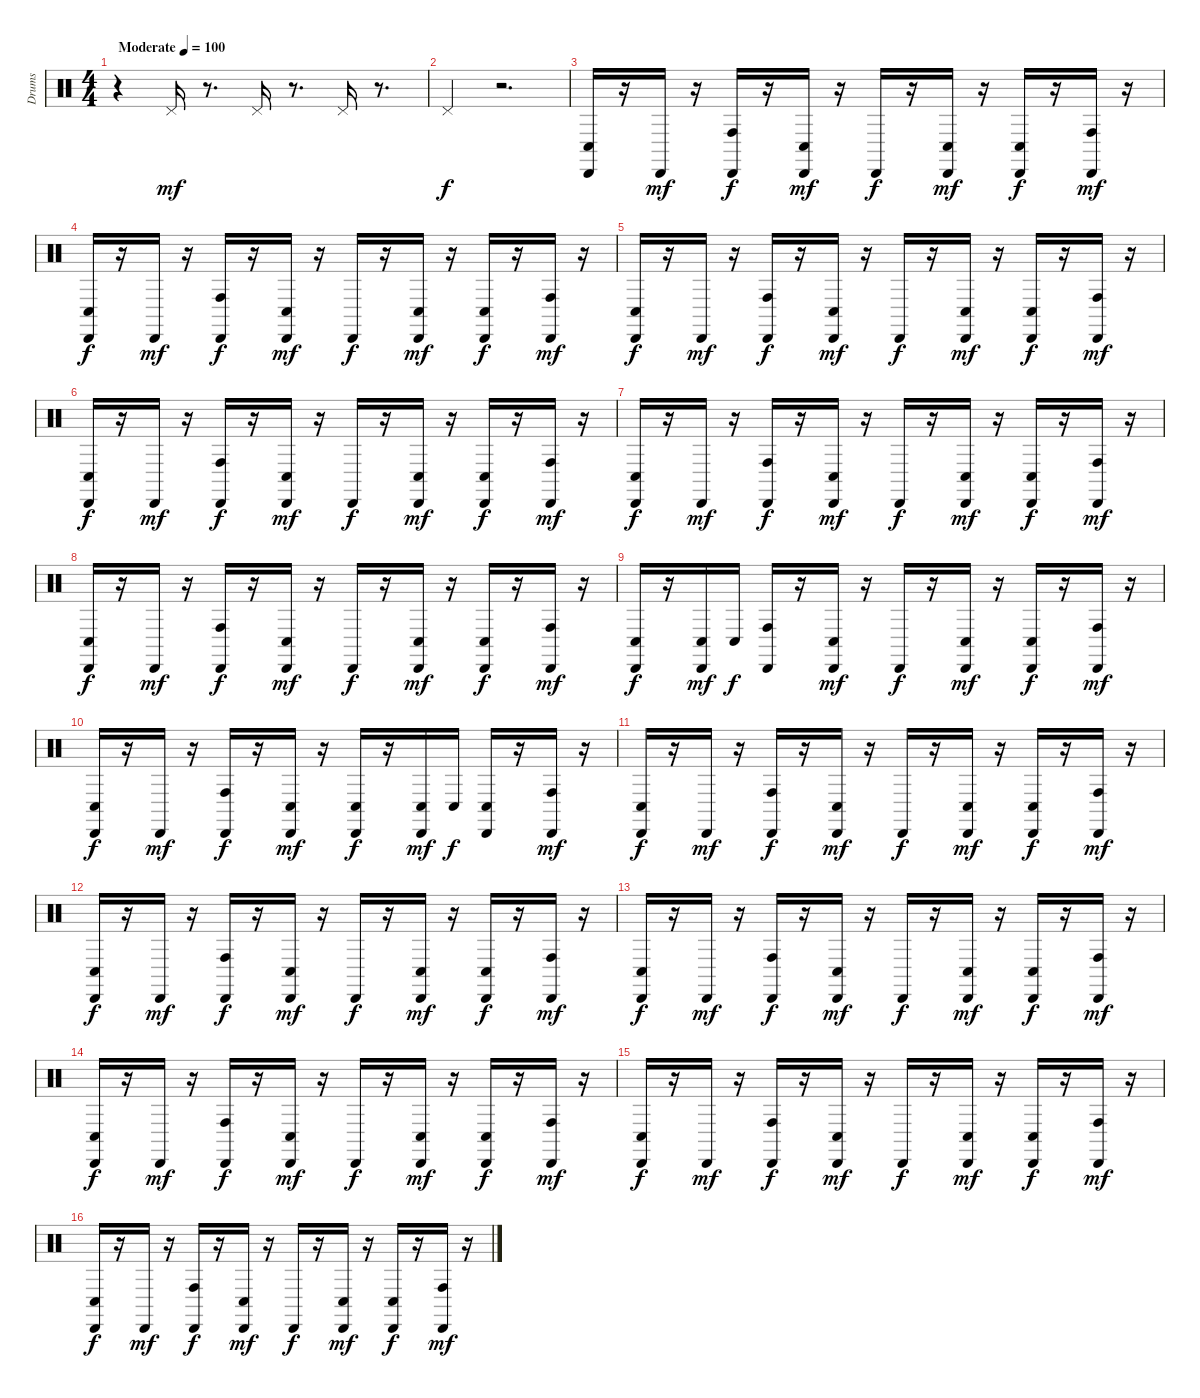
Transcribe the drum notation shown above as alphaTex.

\track ("Drums" "Drums") {instrument percussion}
\staff {score}
\articulation defaults
\ts (4 4)
\tempo (100 "Moderate")
\clef neutral
\ks c
r.4{dy mf} "Pedal Hi-Hat (hit)".16{volume 9} r.8{d} "Pedal Hi-Hat (hit)".16 r.8{d} "Pedal Hi-Hat (hit)".16 r.8{d} |
"Pedal Hi-Hat (hit)".4{dy f} r.2{d} |
("Conga low (hit)" "Cabasa (hit)").16{volume 15} r.16 "Cabasa (hit)".16{dy mf} r.16 ("Conga high (hit)" "Cabasa (hit)").16{dy f} r.16 ("Conga low (hit)" "Cabasa (hit)").16{dy mf} r.16 "Cabasa (hit)".16{dy f} r.16 ("Conga low (hit)" "Cabasa (hit)").16{dy mf} r.16 ("Conga low (hit)" "Cabasa (hit)").16{dy f} r.16 ("Conga high (hit)" "Cabasa (hit)").16{dy mf} r.16 |
("Conga low (hit)" "Cabasa (hit)").16{dy f} r.16 "Cabasa (hit)".16{dy mf} r.16 ("Conga high (hit)" "Cabasa (hit)").16{dy f} r.16 ("Conga low (hit)" "Cabasa (hit)").16{dy mf} r.16 "Cabasa (hit)".16{dy f} r.16 ("Conga low (hit)" "Cabasa (hit)").16{dy mf} r.16 ("Conga low (hit)" "Cabasa (hit)").16{dy f} r.16 ("Conga high (hit)" "Cabasa (hit)").16{dy mf} r.16 |
("Conga low (hit)" "Cabasa (hit)").16{dy f} r.16 "Cabasa (hit)".16{dy mf} r.16 ("Conga high (hit)" "Cabasa (hit)").16{dy f} r.16 ("Conga low (hit)" "Cabasa (hit)").16{dy mf} r.16 "Cabasa (hit)".16{dy f} r.16 ("Conga low (hit)" "Cabasa (hit)").16{dy mf} r.16 ("Conga low (hit)" "Cabasa (hit)").16{dy f} r.16 ("Conga high (hit)" "Cabasa (hit)").16{dy mf} r.16 |
("Conga low (hit)" "Cabasa (hit)").16{dy f} r.16 "Cabasa (hit)".16{dy mf} r.16 ("Conga high (hit)" "Cabasa (hit)").16{dy f} r.16 ("Conga low (hit)" "Cabasa (hit)").16{dy mf} r.16 "Cabasa (hit)".16{dy f} r.16 ("Conga low (hit)" "Cabasa (hit)").16{dy mf} r.16 ("Conga low (hit)" "Cabasa (hit)").16{dy f} r.16 ("Conga high (hit)" "Cabasa (hit)").16{dy mf} r.16 |
("Conga low (hit)" "Cabasa (hit)").16{dy f} r.16 "Cabasa (hit)".16{dy mf} r.16 ("Conga high (hit)" "Cabasa (hit)").16{dy f} r.16 ("Conga low (hit)" "Cabasa (hit)").16{dy mf} r.16 "Cabasa (hit)".16{dy f} r.16 ("Conga low (hit)" "Cabasa (hit)").16{dy mf} r.16 ("Conga low (hit)" "Cabasa (hit)").16{dy f} r.16 ("Conga high (hit)" "Cabasa (hit)").16{dy mf} r.16 |
("Conga low (hit)" "Cabasa (hit)").16{dy f} r.16 "Cabasa (hit)".16{dy mf} r.16 ("Conga high (hit)" "Cabasa (hit)").16{dy f} r.16 ("Conga low (hit)" "Cabasa (hit)").16{dy mf} r.16 "Cabasa (hit)".16{dy f} r.16 ("Conga low (hit)" "Cabasa (hit)").16{dy mf} r.16 ("Conga low (hit)" "Cabasa (hit)").16{dy f} r.16 ("Conga high (hit)" "Cabasa (hit)").16{dy mf} r.16 |
("Conga low (hit)" "Cabasa (hit)").16{dy f} r.16 ("Conga low (hit)" "Cabasa (hit)").16{dy mf} "Conga low (hit)".16{dy f} ("Conga high (hit)" "Cabasa (hit)").16 r.16 ("Conga low (hit)" "Cabasa (hit)").16{dy mf} r.16 "Cabasa (hit)".16{dy f} r.16 ("Conga low (hit)" "Cabasa (hit)").16{dy mf} r.16 ("Conga low (hit)" "Cabasa (hit)").16{dy f} r.16 ("Conga high (hit)" "Cabasa (hit)").16{dy mf} r.16 |
("Conga low (hit)" "Cabasa (hit)").16{dy f} r.16 "Cabasa (hit)".16{dy mf} r.16 ("Conga high (hit)" "Cabasa (hit)").16{dy f} r.16 ("Conga low (hit)" "Cabasa (hit)").16{dy mf} r.16 ("Conga low (hit)" "Cabasa (hit)").16{dy f} r.16 ("Conga low (hit)" "Cabasa (hit)").16{dy mf} "Conga low (hit)".16{dy f} ("Conga low (hit)" "Cabasa (hit)").16 r.16 ("Conga high (hit)" "Cabasa (hit)").16{dy mf} r.16 |
("Conga low (hit)" "Cabasa (hit)").16{dy f} r.16 "Cabasa (hit)".16{dy mf} r.16 ("Conga high (hit)" "Cabasa (hit)").16{dy f} r.16 ("Conga low (hit)" "Cabasa (hit)").16{dy mf} r.16 "Cabasa (hit)".16{dy f} r.16 ("Conga low (hit)" "Cabasa (hit)").16{dy mf} r.16 ("Conga low (hit)" "Cabasa (hit)").16{dy f} r.16 ("Conga high (hit)" "Cabasa (hit)").16{dy mf} r.16 |
("Conga low (hit)" "Cabasa (hit)").16{dy f} r.16 "Cabasa (hit)".16{dy mf} r.16 ("Conga high (hit)" "Cabasa (hit)").16{dy f} r.16 ("Conga low (hit)" "Cabasa (hit)").16{dy mf} r.16 "Cabasa (hit)".16{dy f} r.16 ("Conga low (hit)" "Cabasa (hit)").16{dy mf} r.16 ("Conga low (hit)" "Cabasa (hit)").16{dy f} r.16 ("Conga high (hit)" "Cabasa (hit)").16{dy mf} r.16 |
("Conga low (hit)" "Cabasa (hit)").16{dy f} r.16 "Cabasa (hit)".16{dy mf} r.16 ("Conga high (hit)" "Cabasa (hit)").16{dy f} r.16 ("Conga low (hit)" "Cabasa (hit)").16{dy mf} r.16 "Cabasa (hit)".16{dy f} r.16 ("Conga low (hit)" "Cabasa (hit)").16{dy mf} r.16 ("Conga low (hit)" "Cabasa (hit)").16{dy f} r.16 ("Conga high (hit)" "Cabasa (hit)").16{dy mf} r.16 |
("Conga low (hit)" "Cabasa (hit)").16{dy f} r.16 "Cabasa (hit)".16{dy mf} r.16 ("Conga high (hit)" "Cabasa (hit)").16{dy f} r.16 ("Conga low (hit)" "Cabasa (hit)").16{dy mf} r.16 "Cabasa (hit)".16{dy f} r.16 ("Conga low (hit)" "Cabasa (hit)").16{dy mf} r.16 ("Conga low (hit)" "Cabasa (hit)").16{dy f} r.16 ("Conga high (hit)" "Cabasa (hit)").16{dy mf} r.16 |
("Conga low (hit)" "Cabasa (hit)").16{dy f} r.16 "Cabasa (hit)".16{dy mf} r.16 ("Conga high (hit)" "Cabasa (hit)").16{dy f} r.16 ("Conga low (hit)" "Cabasa (hit)").16{dy mf} r.16 "Cabasa (hit)".16{dy f} r.16 ("Conga low (hit)" "Cabasa (hit)").16{dy mf} r.16 ("Conga low (hit)" "Cabasa (hit)").16{dy f} r.16 ("Conga high (hit)" "Cabasa (hit)").16{dy mf} r.16 |
("Conga low (hit)" "Cabasa (hit)").16{dy f} r.16 "Cabasa (hit)".16{dy mf} r.16 ("Conga high (hit)" "Cabasa (hit)").16{dy f} r.16 ("Conga low (hit)" "Cabasa (hit)").16{dy mf} r.16 "Cabasa (hit)".16{dy f} r.16 ("Conga low (hit)" "Cabasa (hit)").16{dy mf} r.16 ("Conga low (hit)" "Cabasa (hit)").16{dy f} r.16 ("Conga high (hit)" "Cabasa (hit)").16{dy mf} r.16
